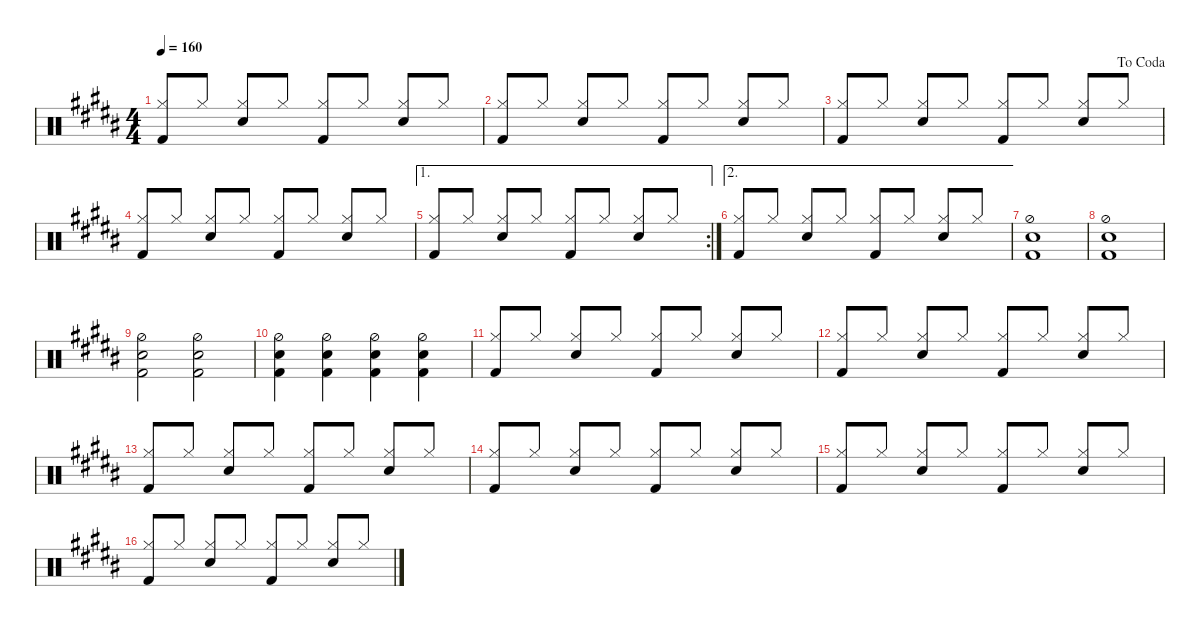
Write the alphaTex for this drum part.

\defaultSystemsLayout 4
\hideDynamics
\bracketExtendMode nobrackets
\singleTrackTrackNamePolicy hidden
\multiTrackTrackNamePolicy hidden
\otherSystemsTrackNameOrientation horizontal
\track ("Drumkit" "Drums") {instrument percussion}
\staff {score}
\articulation defaults
\ts (4 4)
\tempo 160
\clef neutral
\ks b
("Hi-Hat (closed)"{acc forcenatural} "Kick (hit) 2"{acc forcenatural}).8{dy ff beam invert} "Hi-Hat (closed)"{acc forcenatural}.8 ("Hi-Hat (closed)"{acc forcenatural} "Snare (hit) 2"{acc forcenatural}).8{beam invert} "Hi-Hat (closed)"{acc forcenatural}.8 ("Hi-Hat (closed)"{acc forcenatural} "Kick (hit) 2"{acc forcenatural}).8{beam invert} "Hi-Hat (closed)"{acc forcenatural}.8 ("Hi-Hat (closed)"{acc forcenatural} "Snare (hit) 2"{acc forcenatural}).8{beam invert} "Hi-Hat (closed)"{acc forcenatural}.8 |
("Hi-Hat (closed)"{acc forcenatural} "Kick (hit) 2"{acc forcenatural}).8{beam invert} "Hi-Hat (closed)"{acc forcenatural}.8 ("Hi-Hat (closed)"{acc forcenatural} "Snare (hit) 2"{acc forcenatural}).8{beam invert} "Hi-Hat (closed)"{acc forcenatural}.8 ("Hi-Hat (closed)"{acc forcenatural} "Kick (hit) 2"{acc forcenatural}).8{beam invert} "Hi-Hat (closed)"{acc forcenatural}.8 ("Hi-Hat (closed)"{acc forcenatural} "Snare (hit) 2"{acc forcenatural}).8{beam invert} "Hi-Hat (closed)"{acc forcenatural}.8 |
\jump dacoda
("Hi-Hat (closed)"{acc forcenatural} "Kick (hit) 2"{acc forcenatural}).8{beam invert} "Hi-Hat (closed)"{acc forcenatural}.8 ("Hi-Hat (closed)"{acc forcenatural} "Snare (hit) 2"{acc forcenatural}).8{beam invert} "Hi-Hat (closed)"{acc forcenatural}.8 ("Hi-Hat (closed)"{acc forcenatural} "Kick (hit) 2"{acc forcenatural}).8{beam invert} "Hi-Hat (closed)"{acc forcenatural}.8 ("Hi-Hat (closed)"{acc forcenatural} "Snare (hit) 2"{acc forcenatural}).8{beam invert} "Hi-Hat (closed)"{acc forcenatural}.8 |
("Hi-Hat (closed)"{acc forcenatural} "Kick (hit) 2"{acc forcenatural}).8{beam invert} "Hi-Hat (closed)"{acc forcenatural}.8 ("Hi-Hat (closed)"{acc forcenatural} "Snare (hit) 2"{acc forcenatural}).8{beam invert} "Hi-Hat (closed)"{acc forcenatural}.8 ("Hi-Hat (closed)"{acc forcenatural} "Kick (hit) 2"{acc forcenatural}).8{beam invert} "Hi-Hat (closed)"{acc forcenatural}.8 ("Hi-Hat (closed)"{acc forcenatural} "Snare (hit) 2"{acc forcenatural}).8{beam invert} "Hi-Hat (closed)"{acc forcenatural}.8 |
\ae 1
\rc 2
("Hi-Hat (closed)"{acc forcenatural} "Kick (hit) 2"{acc forcenatural}).8{beam invert} "Hi-Hat (closed)"{acc forcenatural}.8 ("Hi-Hat (closed)"{acc forcenatural} "Snare (hit) 2"{acc forcenatural}).8{beam invert} "Hi-Hat (closed)"{acc forcenatural}.8 ("Hi-Hat (closed)"{acc forcenatural} "Kick (hit) 2"{acc forcenatural}).8{beam invert} "Hi-Hat (closed)"{acc forcenatural}.8 ("Hi-Hat (closed)"{acc forcenatural} "Snare (hit) 2"{acc forcenatural}).8{beam invert} "Hi-Hat (closed)"{acc forcenatural}.8 |
\ae 2
("Hi-Hat (closed)"{acc forcenatural} "Kick (hit) 2"{acc forcenatural}).8{beam invert} "Hi-Hat (closed)"{acc forcenatural}.8 ("Hi-Hat (closed)"{acc forcenatural} "Snare (hit) 2"{acc forcenatural}).8{beam invert} "Hi-Hat (closed)"{acc forcenatural}.8 ("Hi-Hat (closed)"{acc forcenatural} "Kick (hit) 2"{acc forcenatural}).8{beam invert} "Hi-Hat (closed)"{acc forcenatural}.8 ("Hi-Hat (closed)"{acc forcenatural} "Snare (hit) 2"{acc forcenatural}).8{beam invert} "Hi-Hat (closed)"{acc forcenatural}.8 |
("Kick (hit) 2"{acc forcenatural} "Snare (hit) 2"{acc forcenatural} "Hi-Hat (half)"{acc forcenatural}).1 |
("Kick (hit) 2"{acc forcenatural} "Snare (hit) 2"{acc forcenatural} "Hi-Hat (half)"{acc forcenatural}).1 |
("Kick (hit) 2"{acc forcenatural} "Snare (hit) 2"{acc forcenatural} "Hi-Hat (half)"{acc forcenatural}).2 ("Kick (hit) 2"{acc forcenatural} "Snare (hit) 2"{acc forcenatural} "Hi-Hat (half)"{acc forcenatural}).2 |
("Kick (hit) 2"{acc forcenatural} "Snare (hit) 2"{acc forcenatural} "Hi-Hat (half)"{acc forcenatural}).4 ("Kick (hit) 2"{acc forcenatural} "Snare (hit) 2"{acc forcenatural} "Hi-Hat (half)"{acc forcenatural}).4 ("Snare (hit) 2"{acc forcenatural} "Hi-Hat (half)"{acc forcenatural} "Kick (hit) 2"{acc forcenatural}).4 ("Snare (hit) 2"{acc forcenatural} "Hi-Hat (half)"{acc forcenatural} "Kick (hit) 2"{acc forcenatural}).4 |
("Hi-Hat (closed)"{acc forcenatural} "Kick (hit) 2"{acc forcenatural}).8{beam invert} "Hi-Hat (closed)"{acc forcenatural}.8 ("Hi-Hat (closed)"{acc forcenatural} "Snare (hit) 2"{acc forcenatural}).8{beam invert} "Hi-Hat (closed)"{acc forcenatural}.8 ("Hi-Hat (closed)"{acc forcenatural} "Kick (hit) 2"{acc forcenatural}).8{beam invert} "Hi-Hat (closed)"{acc forcenatural}.8 ("Hi-Hat (closed)"{acc forcenatural} "Snare (hit) 2"{acc forcenatural}).8{beam invert} "Hi-Hat (closed)"{acc forcenatural}.8 |
("Hi-Hat (closed)"{acc forcenatural} "Kick (hit) 2"{acc forcenatural}).8{beam invert} "Hi-Hat (closed)"{acc forcenatural}.8 ("Hi-Hat (closed)"{acc forcenatural} "Snare (hit) 2"{acc forcenatural}).8{beam invert} "Hi-Hat (closed)"{acc forcenatural}.8 ("Hi-Hat (closed)"{acc forcenatural} "Kick (hit) 2"{acc forcenatural}).8{beam invert} "Hi-Hat (closed)"{acc forcenatural}.8 ("Hi-Hat (closed)"{acc forcenatural} "Snare (hit) 2"{acc forcenatural}).8{beam invert} "Hi-Hat (closed)"{acc forcenatural}.8 |
("Hi-Hat (closed)"{acc forcenatural} "Kick (hit) 2"{acc forcenatural}).8{beam invert} "Hi-Hat (closed)"{acc forcenatural}.8 ("Hi-Hat (closed)"{acc forcenatural} "Snare (hit) 2"{acc forcenatural}).8{beam invert} "Hi-Hat (closed)"{acc forcenatural}.8 ("Hi-Hat (closed)"{acc forcenatural} "Kick (hit) 2"{acc forcenatural}).8{beam invert} "Hi-Hat (closed)"{acc forcenatural}.8 ("Hi-Hat (closed)"{acc forcenatural} "Snare (hit) 2"{acc forcenatural}).8{beam invert} "Hi-Hat (closed)"{acc forcenatural}.8 |
("Hi-Hat (closed)"{acc forcenatural} "Kick (hit) 2"{acc forcenatural}).8{beam invert} "Hi-Hat (closed)"{acc forcenatural}.8 ("Hi-Hat (closed)"{acc forcenatural} "Snare (hit) 2"{acc forcenatural}).8{beam invert} "Hi-Hat (closed)"{acc forcenatural}.8 ("Hi-Hat (closed)"{acc forcenatural} "Kick (hit) 2"{acc forcenatural}).8{beam invert} "Hi-Hat (closed)"{acc forcenatural}.8 ("Hi-Hat (closed)"{acc forcenatural} "Snare (hit) 2"{acc forcenatural}).8{beam invert} "Hi-Hat (closed)"{acc forcenatural}.8 |
("Hi-Hat (closed)"{acc forcenatural} "Kick (hit) 2"{acc forcenatural}).8{beam invert} "Hi-Hat (closed)"{acc forcenatural}.8 ("Hi-Hat (closed)"{acc forcenatural} "Snare (hit) 2"{acc forcenatural}).8{beam invert} "Hi-Hat (closed)"{acc forcenatural}.8 ("Hi-Hat (closed)"{acc forcenatural} "Kick (hit) 2"{acc forcenatural}).8{beam invert} "Hi-Hat (closed)"{acc forcenatural}.8 ("Hi-Hat (closed)"{acc forcenatural} "Snare (hit) 2"{acc forcenatural}).8{beam invert} "Hi-Hat (closed)"{acc forcenatural}.8 |
("Hi-Hat (closed)"{acc forcenatural} "Kick (hit) 2"{acc forcenatural}).8{beam invert} "Hi-Hat (closed)"{acc forcenatural}.8 ("Hi-Hat (closed)"{acc forcenatural} "Snare (hit) 2"{acc forcenatural}).8{beam invert} "Hi-Hat (closed)"{acc forcenatural}.8 ("Hi-Hat (closed)"{acc forcenatural} "Kick (hit) 2"{acc forcenatural}).8{beam invert} "Hi-Hat (closed)"{acc forcenatural}.8 ("Hi-Hat (closed)"{acc forcenatural} "Snare (hit) 2"{acc forcenatural}).8{beam invert} "Hi-Hat (closed)"{acc forcenatural}.8
